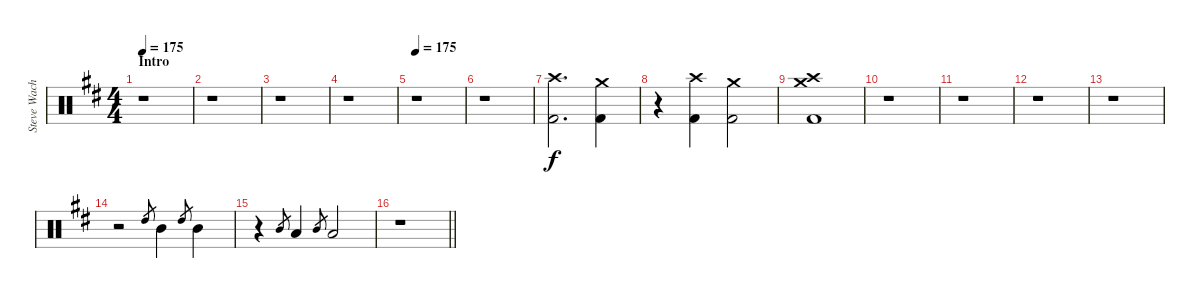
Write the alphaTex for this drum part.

\track ("Steve Wacholz" "Steve Wach") {instrument percussion}
\staff {score}
\articulation defaults
\ts (4 4)
\section ("" "Intro")
\tempo 175
\tempo 160
\tempo 175
\clef neutral
\ks bminor
r.1{dy f} |
r.1 |
r.1 |
r.1 |
\tempo 175
r.1 |
r.1 |
("Crash high (hit)" "Kick (hit) 2").2{d} ("Crash medium (hit)" "Kick (hit) 2").4 |
r.4 ("Crash high (hit)" "Kick (hit) 2").4 ("Crash medium (hit)" "Kick (hit) 2").2 |
("Crash high (hit)" "Crash medium (hit)" "Kick (hit) 2").1 |
r.1 |
r.1 |
r.1 |
r.1 |
r.2 "High Tom (hit)".8{gr} "Mid Tom (hit)".4 "High Tom (hit)".8{gr} "Mid Tom (hit)".4 |
r.4 "Mid Tom (hit)".8{gr} "Low Tom (hit)".4 "Mid Tom (hit)".8{gr} "Low Tom (hit)".2 |
\barLineRight lightlight
r.1
